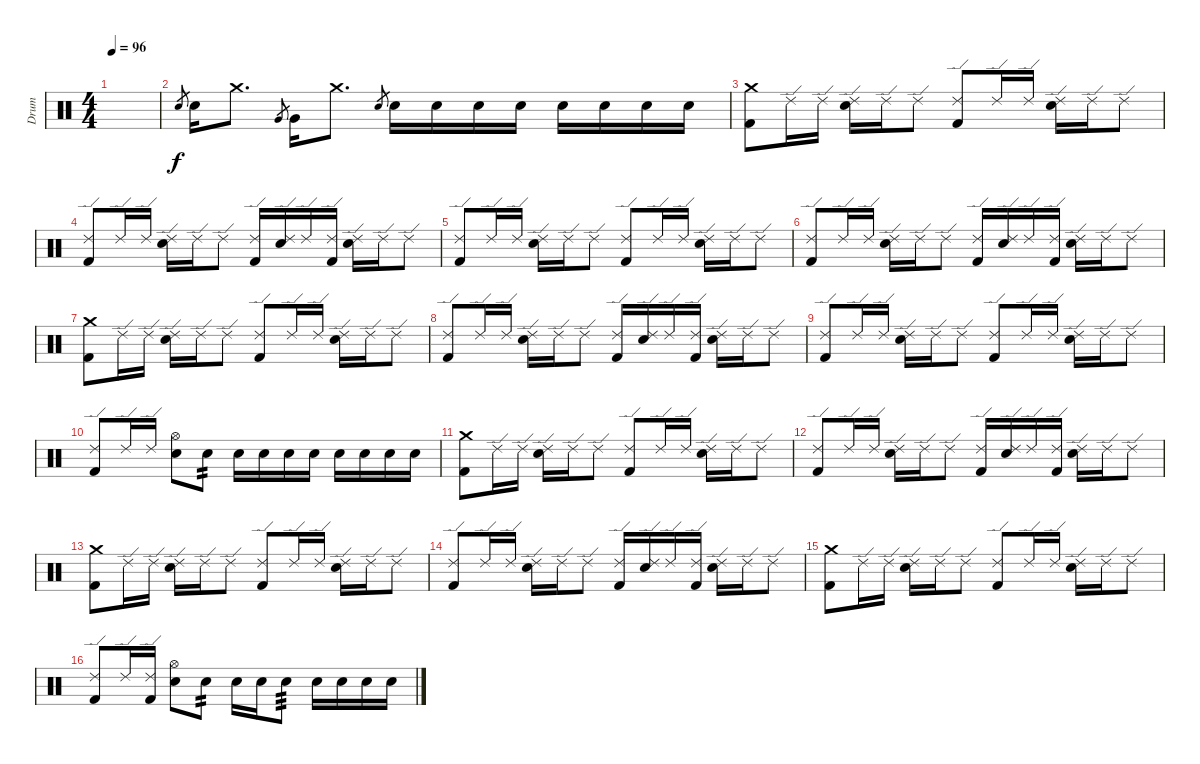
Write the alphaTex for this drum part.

\track ("Drum" "Drum") {instrument percussion}
\staff {score}
\articulation defaults
\ts (4 4)
\tempo 96
\clef neutral
\ks c
|
"Electric Snare (hit)".8{gr} "Electric Snare (hit)".16 "Crash medium (hit)".8{d} "Very Low Tom (hit)".8{gr} "Very Low Tom (hit)".16 "Crash medium (hit)".8{d} "Electric Snare (hit)".8{gr} "Electric Snare (hit)".16 "Electric Snare (hit)".16 "Electric Snare (hit)".16 "Electric Snare (hit)".16 "Electric Snare (hit)".16 "Electric Snare (hit)".16 "Electric Snare (hit)".16 "Electric Snare (hit)".16 |
("Crash medium (hit)" "Kick (hit) 2").8 "Ride (edge) 2".16 "Ride (edge) 2".16 ("Ride (edge) 2" "Electric Snare (hit)").16 "Ride (edge) 2".16 "Ride (edge) 2".8 ("Ride (edge) 2" "Kick (hit) 2").8 "Ride (edge) 2".16 "Ride (edge) 2".16 ("Ride (edge) 2" "Electric Snare (hit)").16 "Ride (edge) 2".16 "Ride (edge) 2".8 |
("Ride (edge) 2" "Kick (hit) 2").8 "Ride (edge) 2".16 "Ride (edge) 2".16 ("Ride (edge) 2" "Electric Snare (hit)").16 "Ride (edge) 2".16 "Ride (edge) 2".8 ("Ride (edge) 2" "Kick (hit) 2").16 ("Ride (edge) 2" "Electric Snare (hit)").16 "Ride (edge) 2".16 ("Ride (edge) 2" "Kick (hit) 2").16 ("Ride (edge) 2" "Electric Snare (hit)").16 "Ride (edge) 2".16 "Ride (edge) 2".8 |
("Ride (edge) 2" "Kick (hit) 2").8 "Ride (edge) 2".16 "Ride (edge) 2".16 ("Ride (edge) 2" "Electric Snare (hit)").16 "Ride (edge) 2".16 "Ride (edge) 2".8 ("Ride (edge) 2" "Kick (hit) 2").8 "Ride (edge) 2".16 "Ride (edge) 2".16 ("Ride (edge) 2" "Electric Snare (hit)").16 "Ride (edge) 2".16 "Ride (edge) 2".8 |
("Ride (edge) 2" "Kick (hit) 2").8 "Ride (edge) 2".16 "Ride (edge) 2".16 ("Ride (edge) 2" "Electric Snare (hit)").16 "Ride (edge) 2".16 "Ride (edge) 2".8 ("Ride (edge) 2" "Kick (hit) 2").16 ("Ride (edge) 2" "Electric Snare (hit)").16 "Ride (edge) 2".16 ("Ride (edge) 2" "Kick (hit) 2").16 ("Ride (edge) 2" "Electric Snare (hit)").16 "Ride (edge) 2".16 "Ride (edge) 2".8 |
("Crash medium (hit)" "Kick (hit) 2").8 "Ride (edge) 2".16 "Ride (edge) 2".16 ("Ride (edge) 2" "Electric Snare (hit)").16 "Ride (edge) 2".16 "Ride (edge) 2".8 ("Ride (edge) 2" "Kick (hit) 2").8 "Ride (edge) 2".16 "Ride (edge) 2".16 ("Ride (edge) 2" "Electric Snare (hit)").16 "Ride (edge) 2".16 "Ride (edge) 2".8 |
("Ride (edge) 2" "Kick (hit) 2").8 "Ride (edge) 2".16 "Ride (edge) 2".16 ("Ride (edge) 2" "Electric Snare (hit)").16 "Ride (edge) 2".16 "Ride (edge) 2".8 ("Ride (edge) 2" "Kick (hit) 2").16 ("Ride (edge) 2" "Electric Snare (hit)").16 "Ride (edge) 2".16 ("Ride (edge) 2" "Kick (hit) 2").16 ("Ride (edge) 2" "Electric Snare (hit)").16 "Ride (edge) 2".16 "Ride (edge) 2".8 |
("Ride (edge) 2" "Kick (hit) 2").8 "Ride (edge) 2".16 "Ride (edge) 2".16 ("Ride (edge) 2" "Electric Snare (hit)").16 "Ride (edge) 2".16 "Ride (edge) 2".8 ("Ride (edge) 2" "Kick (hit) 2").8 "Ride (edge) 2".16 "Ride (edge) 2".16 ("Ride (edge) 2" "Electric Snare (hit)").16 "Ride (edge) 2".16 "Ride (edge) 2".8 |
("Ride (edge) 2" "Kick (hit) 2").8 "Ride (edge) 2".16 "Ride (edge) 2".16 ("Hi-Hat (open)" "Electric Snare (hit)").8 "Electric Snare (hit)".8{tp 2} "Electric Snare (hit)".16 "Electric Snare (hit)".16 "Electric Snare (hit)".16 "Electric Snare (hit)".16 "Electric Snare (hit)".16 "Electric Snare (hit)".16 "Electric Snare (hit)".16 "Electric Snare (hit)".16 |
("Crash medium (hit)" "Kick (hit) 2").8 "Ride (edge) 2".16 "Ride (edge) 2".16 ("Ride (edge) 2" "Electric Snare (hit)").16 "Ride (edge) 2".16 "Ride (edge) 2".8 ("Ride (edge) 2" "Kick (hit) 2").8 "Ride (edge) 2".16 "Ride (edge) 2".16 ("Ride (edge) 2" "Electric Snare (hit)").16 "Ride (edge) 2".16 "Ride (edge) 2".8 |
("Ride (edge) 2" "Kick (hit) 2").8 "Ride (edge) 2".16 "Ride (edge) 2".16 ("Ride (edge) 2" "Electric Snare (hit)").16 "Ride (edge) 2".16 "Ride (edge) 2".8 ("Ride (edge) 2" "Kick (hit) 2").16 ("Ride (edge) 2" "Electric Snare (hit)").16 "Ride (edge) 2".16 ("Ride (edge) 2" "Kick (hit) 2").16 ("Ride (edge) 2" "Electric Snare (hit)").16 "Ride (edge) 2".16 "Ride (edge) 2".8 |
("Crash medium (hit)" "Kick (hit) 2").8 "Ride (edge) 2".16 "Ride (edge) 2".16 ("Ride (edge) 2" "Electric Snare (hit)").16 "Ride (edge) 2".16 "Ride (edge) 2".8 ("Ride (edge) 2" "Kick (hit) 2").8 "Ride (edge) 2".16 "Ride (edge) 2".16 ("Ride (edge) 2" "Electric Snare (hit)").16 "Ride (edge) 2".16 "Ride (edge) 2".8 |
("Ride (edge) 2" "Kick (hit) 2").8 "Ride (edge) 2".16 "Ride (edge) 2".16 ("Ride (edge) 2" "Electric Snare (hit)").16 "Ride (edge) 2".16 "Ride (edge) 2".8 ("Ride (edge) 2" "Kick (hit) 2").16 ("Ride (edge) 2" "Electric Snare (hit)").16 "Ride (edge) 2".16 ("Ride (edge) 2" "Kick (hit) 2").16 ("Ride (edge) 2" "Electric Snare (hit)").16 "Ride (edge) 2".16 "Ride (edge) 2".8 |
("Crash medium (hit)" "Kick (hit) 2").8 "Ride (edge) 2".16 "Ride (edge) 2".16 ("Ride (edge) 2" "Electric Snare (hit)").16 "Ride (edge) 2".16 "Ride (edge) 2".8 ("Ride (edge) 2" "Kick (hit) 2").8 "Ride (edge) 2".16 "Ride (edge) 2".16 ("Ride (edge) 2" "Electric Snare (hit)").16 "Ride (edge) 2".16 "Ride (edge) 2".8 |
("Ride (edge) 2" "Kick (hit) 2").8 "Ride (edge) 2".16 ("Ride (edge) 2" "Kick (hit) 2").16 ("Hi-Hat (open)" "Electric Snare (hit)").8 "Electric Snare (hit)".8{tp 2} "Electric Snare (hit)".16 "Electric Snare (hit)".16 "Electric Snare (hit)".8{tp 3} "Electric Snare (hit)".16 "Electric Snare (hit)".16 "Electric Snare (hit)".16 "Electric Snare (hit)".16
